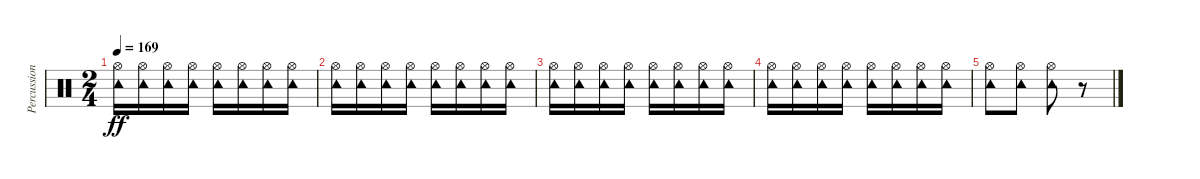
\track ("Percussion" "Percussion") {instrument percussion}
\staff {score}
\articulation defaults
\ts (2 4)
\tempo 169
\clef neutral
\ks c
("Hi-Hat (open)" "Tambourine (hit)").16{dy ff} ("Hi-Hat (open)" "Tambourine (hit)").16 ("Hi-Hat (open)" "Tambourine (hit)").16 ("Hi-Hat (open)" "Tambourine (hit)").16 ("Hi-Hat (open)" "Tambourine (hit)").16 ("Hi-Hat (open)" "Tambourine (hit)").16 ("Hi-Hat (open)" "Tambourine (hit)").16 ("Hi-Hat (open)" "Tambourine (hit)").16 |
("Hi-Hat (open)" "Tambourine (hit)").16 ("Hi-Hat (open)" "Tambourine (hit)").16 ("Hi-Hat (open)" "Tambourine (hit)").16 ("Hi-Hat (open)" "Tambourine (hit)").16 ("Hi-Hat (open)" "Tambourine (hit)").16 ("Hi-Hat (open)" "Tambourine (hit)").16 ("Hi-Hat (open)" "Tambourine (hit)").16 ("Hi-Hat (open)" "Tambourine (hit)").16 |
("Hi-Hat (open)" "Tambourine (hit)").16 ("Hi-Hat (open)" "Tambourine (hit)").16 ("Hi-Hat (open)" "Tambourine (hit)").16 ("Hi-Hat (open)" "Tambourine (hit)").16 ("Hi-Hat (open)" "Tambourine (hit)").16 ("Hi-Hat (open)" "Tambourine (hit)").16 ("Hi-Hat (open)" "Tambourine (hit)").16 ("Hi-Hat (open)" "Tambourine (hit)").16 |
("Hi-Hat (open)" "Tambourine (hit)").16 ("Hi-Hat (open)" "Tambourine (hit)").16 ("Hi-Hat (open)" "Tambourine (hit)").16 ("Hi-Hat (open)" "Tambourine (hit)").16 ("Hi-Hat (open)" "Tambourine (hit)").16 ("Hi-Hat (open)" "Tambourine (hit)").16 ("Hi-Hat (open)" "Tambourine (hit)").16 ("Hi-Hat (open)" "Tambourine (hit)").16 |
("Hi-Hat (open)" "Tambourine (hit)").8 ("Hi-Hat (open)" "Tambourine (hit)").8 ("Hi-Hat (open)" "Tambourine (hit)").8 r.8
